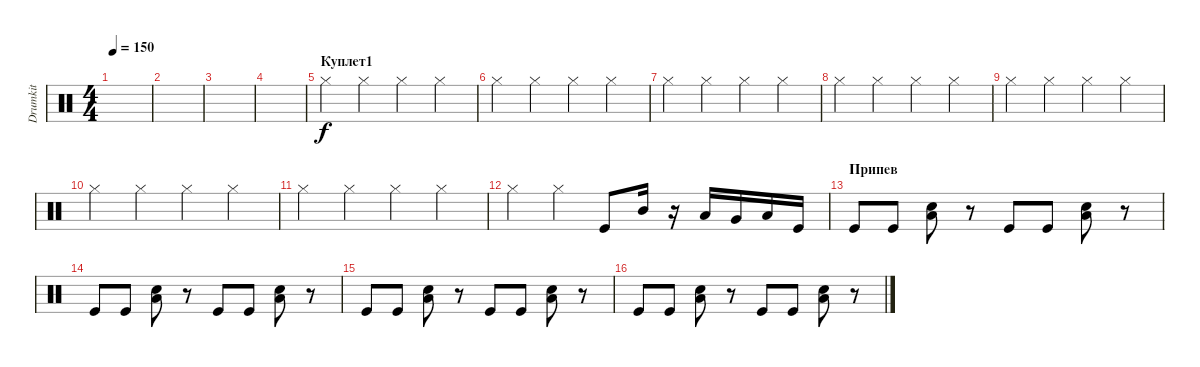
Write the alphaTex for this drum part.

\track ("Drumkit" "Drumkit") {instrument percussion}
\staff {score}
\articulation defaults
\ts (4 4)
\tempo 150
\clef neutral
\ks c
|
|
|
|
\section ("" "Куплет1")
"Hi-Hat (closed)".4 "Hi-Hat (closed)".4 "Hi-Hat (closed)".4 "Hi-Hat (closed)".4 |
"Hi-Hat (closed)".4 "Hi-Hat (closed)".4 "Hi-Hat (closed)".4 "Hi-Hat (closed)".4 |
"Hi-Hat (closed)".4 "Hi-Hat (closed)".4 "Hi-Hat (closed)".4 "Hi-Hat (closed)".4 |
"Hi-Hat (closed)".4 "Hi-Hat (closed)".4 "Hi-Hat (closed)".4 "Hi-Hat (closed)".4 |
"Hi-Hat (closed)".4 "Hi-Hat (closed)".4 "Hi-Hat (closed)".4 "Hi-Hat (closed)".4 |
"Hi-Hat (closed)".4 "Hi-Hat (closed)".4 "Hi-Hat (closed)".4 "Hi-Hat (closed)".4 |
"Hi-Hat (closed)".4 "Hi-Hat (closed)".4 "Hi-Hat (closed)".4 "Hi-Hat (closed)".4 |
"Hi-Hat (closed)".4 "Hi-Hat (closed)".4 "Kick (hit)".8 "Mid Tom (hit)".16 r.16 "Low Tom (hit)".16 "Very Low Tom (hit)".16 "Low Floor Tom (hit)".16 "Kick (hit)".16 |
\section ("" "Припев")
"Kick (hit)".8 "Kick (hit)".8 ("Snare (hit) 2" "Low Floor Tom (hit)").8 r.8 "Kick (hit)".8 "Kick (hit)".8 ("Snare (hit) 2" "Low Floor Tom (hit)").8 r.8 |
"Kick (hit)".8 "Kick (hit)".8 ("Snare (hit) 2" "Low Floor Tom (hit)").8 r.8 "Kick (hit)".8 "Kick (hit)".8 ("Snare (hit) 2" "Low Floor Tom (hit)").8 r.8 |
"Kick (hit)".8 "Kick (hit)".8 ("Snare (hit) 2" "Low Floor Tom (hit)").8 r.8 "Kick (hit)".8 "Kick (hit)".8 ("Snare (hit) 2" "Low Floor Tom (hit)").8 r.8 |
"Kick (hit)".8 "Kick (hit)".8 ("Snare (hit) 2" "Low Floor Tom (hit)").8 r.8 "Kick (hit)".8 "Kick (hit)".8 ("Snare (hit) 2" "Low Floor Tom (hit)").8 r.8
